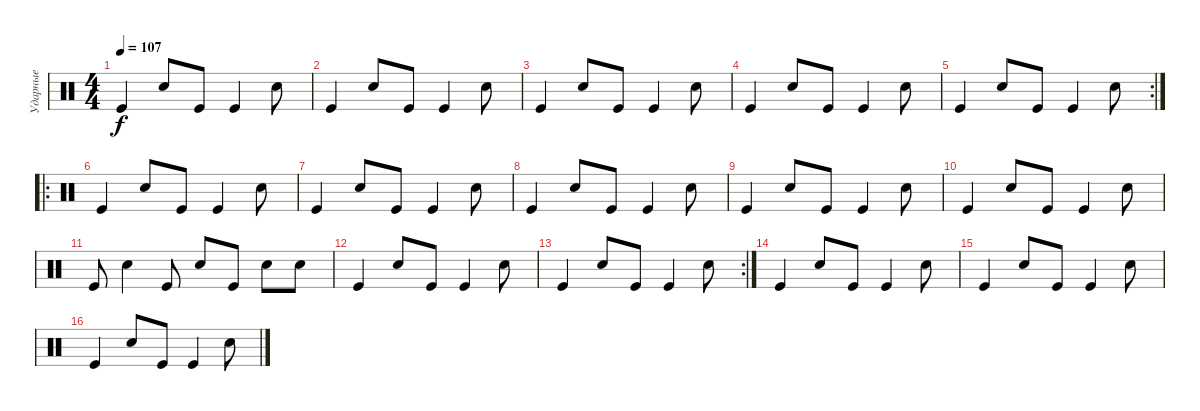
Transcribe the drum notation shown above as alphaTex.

\track ("Ударные" "Ударные") {instrument percussion}
\staff {score}
\articulation defaults
\ts (4 4)
\tempo 107
\clef neutral
\ks c "Kick (hit)".4{dy f} "Snare (hit) 2".8 "Kick (hit)".8 "Kick (hit)".4 "Snare (hit) 2".8
|
"Kick (hit)".4 "Snare (hit) 2".8 "Kick (hit)".8 "Kick (hit)".4 "Snare (hit) 2".8 |
"Kick (hit)".4 "Snare (hit) 2".8 "Kick (hit)".8 "Kick (hit)".4 "Snare (hit) 2".8 |
"Kick (hit)".4 "Snare (hit) 2".8 "Kick (hit)".8 "Kick (hit)".4 "Snare (hit) 2".8 |
\rc 2 "Kick (hit)".4 "Snare (hit) 2".8 "Kick (hit)".8 "Kick (hit)".4 "Snare (hit) 2".8
|
\ro "Kick (hit)".4 "Snare (hit) 2".8 "Kick (hit)".8 "Kick (hit)".4 "Snare (hit) 2".8
|
"Kick (hit)".4 "Snare (hit) 2".8 "Kick (hit)".8 "Kick (hit)".4 "Snare (hit) 2".8 |
"Kick (hit)".4 "Snare (hit) 2".8 "Kick (hit)".8 "Kick (hit)".4 "Snare (hit) 2".8 |
"Kick (hit)".4 "Snare (hit) 2".8 "Kick (hit)".8 "Kick (hit)".4 "Snare (hit) 2".8 |
"Kick (hit)".4 "Snare (hit) 2".8 "Kick (hit)".8 "Kick (hit)".4 "Snare (hit) 2".8 |
"Kick (hit)".8 "Snare (hit) 2".4 "Kick (hit)".8 "Snare (hit) 2".8 "Kick (hit)".8 "Snare (hit) 2".8 "Snare (hit) 2".8 |
"Kick (hit)".4 "Snare (hit) 2".8 "Kick (hit)".8 "Kick (hit)".4 "Snare (hit) 2".8 |
\rc 2 "Kick (hit)".4 "Snare (hit) 2".8 "Kick (hit)".8 "Kick (hit)".4 "Snare (hit) 2".8
|
"Kick (hit)".4 "Snare (hit) 2".8 "Kick (hit)".8 "Kick (hit)".4 "Snare (hit) 2".8 |
"Kick (hit)".4 "Snare (hit) 2".8 "Kick (hit)".8 "Kick (hit)".4 "Snare (hit) 2".8 |
"Kick (hit)".4 "Snare (hit) 2".8 "Kick (hit)".8 "Kick (hit)".4 "Snare (hit) 2".8
